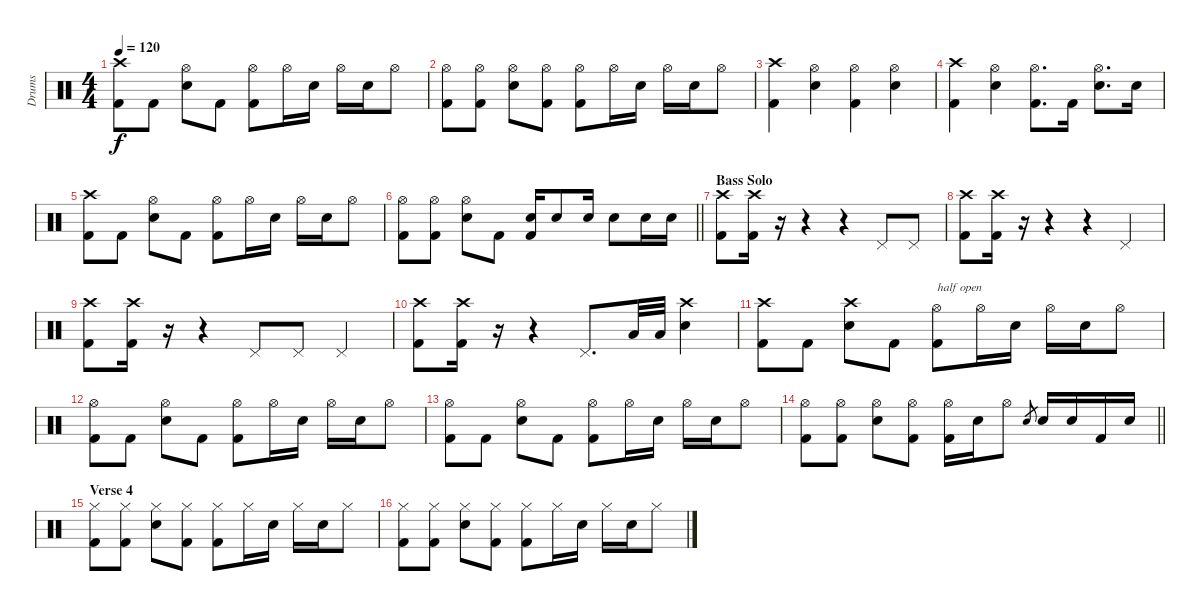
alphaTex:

\track ("Drums" "Drums") {instrument percussion}
\staff {score}
\articulation defaults
\ts (4 4)
\tempo 120
\clef neutral
\ks c
("Crash high (hit)" "Kick (hit) 2").8{dy f} "Kick (hit) 2".8 ("Hi-Hat (open)" "Electric Snare (hit)").8 "Kick (hit) 2".8 ("Hi-Hat (open)" "Kick (hit) 2").8 "Hi-Hat (open)".16 "Electric Snare (hit)".16 "Hi-Hat (open)".16 "Electric Snare (hit)".16 "Hi-Hat (open)".8 |
("Hi-Hat (open)" "Kick (hit) 2").8 ("Hi-Hat (open)" "Kick (hit) 2").8 ("Hi-Hat (open)" "Electric Snare (hit)").8 ("Hi-Hat (open)" "Kick (hit) 2").8 ("Hi-Hat (open)" "Kick (hit) 2").8 "Hi-Hat (open)".16 "Electric Snare (hit)".16 "Hi-Hat (open)".16 "Electric Snare (hit)".16 "Hi-Hat (open)".8 |
("Crash high (hit)" "Kick (hit) 2").4 ("Hi-Hat (open)" "Electric Snare (hit)").4 ("Hi-Hat (open)" "Kick (hit) 2").4 ("Hi-Hat (open)" "Electric Snare (hit)").4 |
("Crash high (hit)" "Kick (hit) 2").4 ("Hi-Hat (open)" "Electric Snare (hit)").4 ("Hi-Hat (open)" "Kick (hit) 2").8{d} "Kick (hit) 2".16 ("Hi-Hat (open)" "Electric Snare (hit)").8{d} "Electric Snare (hit)".16 |
("Crash high (hit)" "Kick (hit) 2").8 "Kick (hit) 2".8 ("Hi-Hat (open)" "Electric Snare (hit)").8 "Kick (hit) 2".8 ("Hi-Hat (open)" "Kick (hit) 2").8 "Hi-Hat (open)".16 "Electric Snare (hit)".16 "Hi-Hat (open)".16 "Electric Snare (hit)".16 "Hi-Hat (open)".8 |
\barLineRight lightlight
("Hi-Hat (open)" "Kick (hit) 2").8 ("Hi-Hat (open)" "Kick (hit) 2").8 ("Hi-Hat (open)" "Electric Snare (hit)").8 "Kick (hit) 2".8 ("Electric Snare (hit)" "Kick (hit) 2").16 "Electric Snare (hit)".8 "Electric Snare (hit)".16 "Electric Snare (hit)".8 "Electric Snare (hit)".16 "Electric Snare (hit)".16 |
\section ("" "Bass Solo")
("Crash high (hit)" "Kick (hit) 2").8 ("Crash high (hit)" "Kick (hit) 2").16 r.16 r.4 r.4 "Pedal Hi-Hat (hit)".8 "Pedal Hi-Hat (hit)".8 |
("Crash high (hit)" "Kick (hit) 2").8 ("Crash high (hit)" "Kick (hit) 2").16 r.16 r.4 r.4 "Pedal Hi-Hat (hit)".4 |
("Crash high (hit)" "Kick (hit) 2").8 ("Crash high (hit)" "Kick (hit) 2").16 r.16 r.4 "Pedal Hi-Hat (hit)".8 "Pedal Hi-Hat (hit)".8 "Pedal Hi-Hat (hit)".4 |
("Crash high (hit)" "Kick (hit) 2").8 ("Crash high (hit)" "Kick (hit) 2").16 r.16 r.4 "Pedal Hi-Hat (hit)".8{d} "Low Floor Tom (hit)".32 "Low Floor Tom (hit)".32 ("Crash high (hit)" "Electric Snare (hit)").4 |
("Crash high (hit)" "Kick (hit) 2").8 "Kick (hit) 2".8 ("Crash high (hit)" "Electric Snare (hit)").8 "Kick (hit) 2".8 ("Hi-Hat (open)" "Kick (hit) 2").8{txt "half open"} "Hi-Hat (open)".16 "Electric Snare (hit)".16 "Hi-Hat (open)".16 "Electric Snare (hit)".16 "Hi-Hat (open)".8 |
("Hi-Hat (open)" "Kick (hit) 2").8 "Kick (hit) 2".8 ("Hi-Hat (open)" "Electric Snare (hit)").8 "Kick (hit) 2".8 ("Hi-Hat (open)" "Kick (hit) 2").8 "Hi-Hat (open)".16 "Electric Snare (hit)".16 "Hi-Hat (open)".16 "Electric Snare (hit)".16 "Hi-Hat (open)".8 |
("Hi-Hat (open)" "Kick (hit) 2").8 "Kick (hit) 2".8 ("Hi-Hat (open)" "Electric Snare (hit)").8 "Kick (hit) 2".8 ("Hi-Hat (open)" "Kick (hit) 2").8 "Hi-Hat (open)".16 "Electric Snare (hit)".16 "Hi-Hat (open)".16 "Electric Snare (hit)".16 "Hi-Hat (open)".8 |
\barLineRight lightlight
("Hi-Hat (open)" "Kick (hit) 2").8 ("Hi-Hat (open)" "Kick (hit) 2").8 ("Hi-Hat (open)" "Electric Snare (hit)").8 ("Hi-Hat (open)" "Kick (hit) 2").8 ("Hi-Hat (open)" "Kick (hit) 2").16 "Electric Snare (hit)".16 "Hi-Hat (open)".8 "Electric Snare (hit)".8{gr} "Electric Snare (hit)".16 "Electric Snare (hit)".16 "Kick (hit) 2".16 "Electric Snare (hit)".16 |
\section ("" "Verse 4")
("Hi-Hat (closed)" "Kick (hit) 2").8 ("Hi-Hat (closed)" "Kick (hit) 2").8 ("Hi-Hat (closed)" "Electric Snare (hit)").8 ("Hi-Hat (closed)" "Kick (hit) 2").8 ("Hi-Hat (closed)" "Kick (hit) 2").8 "Hi-Hat (closed)".16 "Electric Snare (hit)".16 "Hi-Hat (closed)".16 "Electric Snare (hit)".16 "Hi-Hat (closed)".8 |
("Hi-Hat (closed)" "Kick (hit) 2").8 ("Hi-Hat (closed)" "Kick (hit) 2").8 ("Hi-Hat (closed)" "Electric Snare (hit)").8 ("Hi-Hat (closed)" "Kick (hit) 2").8 ("Hi-Hat (closed)" "Kick (hit) 2").8 "Hi-Hat (closed)".16 "Electric Snare (hit)".16 "Hi-Hat (closed)".16 "Electric Snare (hit)".16 "Hi-Hat (closed)".8
